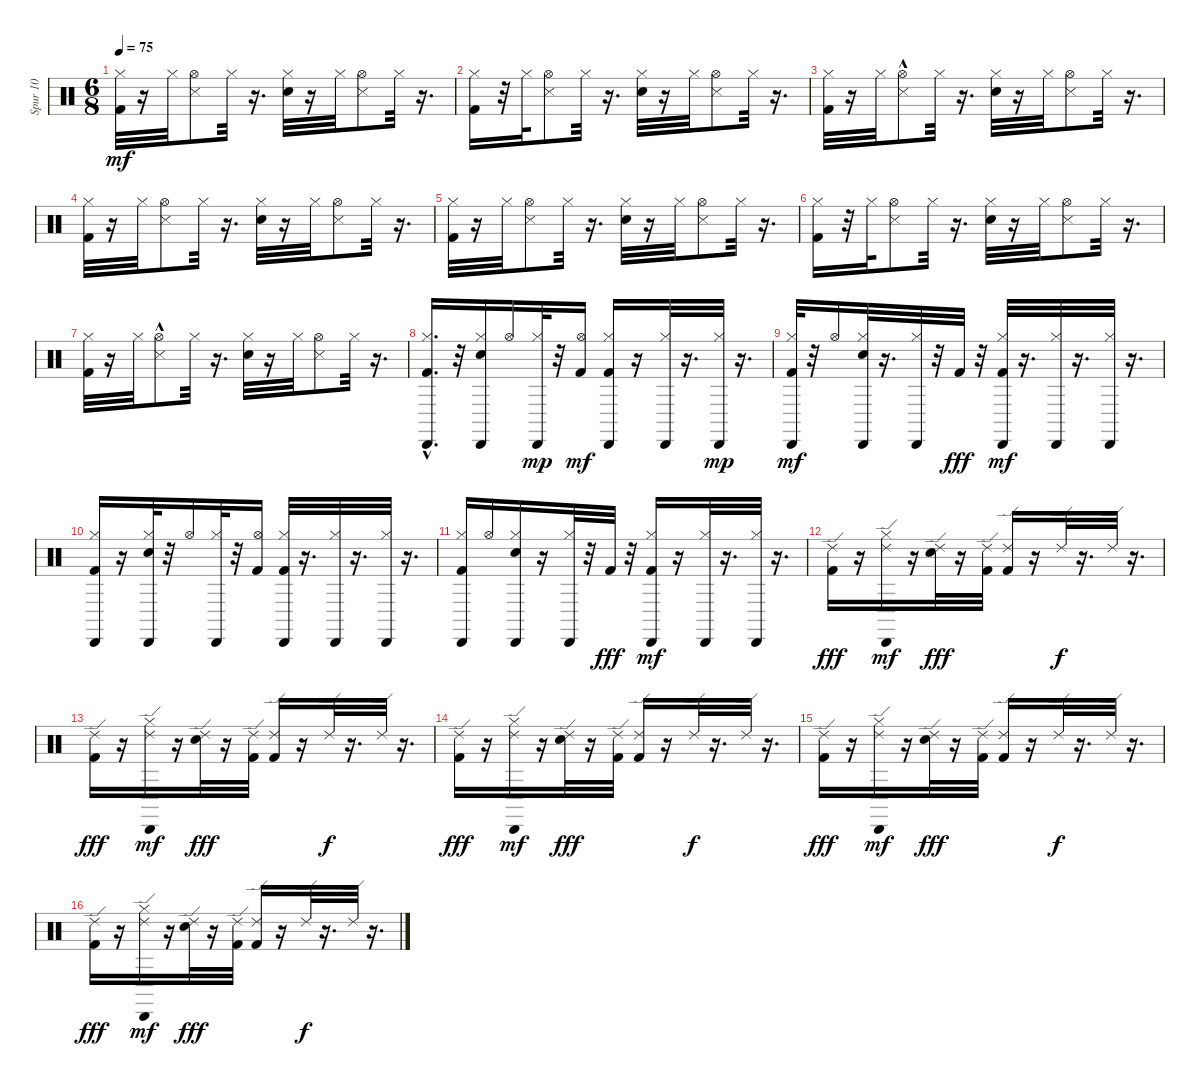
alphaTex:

\track ("Spur 10" "Spur 10") {instrument percussion}
\staff {score}
\articulation defaults
\ts (6 8)
\tempo 75
\clef neutral
\ks c
("Kick (hit) 2" "Hi-Hat (closed)").32{dy mf} r.16 "Hi-Hat (closed)".32 ("Snare (side stick) 3" "Hi-Hat (open)").8 "Hi-Hat (closed)".32 r.16{d} ("Snare (hit) 2" "Hi-Hat (closed)").32 r.16 "Hi-Hat (closed)".32 ("Snare (side stick) 3" "Hi-Hat (open)").8 "Hi-Hat (closed)".32 r.16{d} |
("Kick (hit) 2" "Hi-Hat (closed)").16 r.32 "Hi-Hat (closed)".32 ("Snare (side stick) 3" "Hi-Hat (open)").8 "Hi-Hat (closed)".32 r.16{d} ("Snare (hit) 2" "Hi-Hat (closed)").32 r.16 "Hi-Hat (closed)".32 ("Snare (side stick) 3" "Hi-Hat (open)").8 "Hi-Hat (closed)".32 r.16{d} |
("Kick (hit) 2" "Hi-Hat (closed)").32 r.16 "Hi-Hat (closed)".32 ("Snare (side stick) 3"{hac} "Hi-Hat (open)").8 "Hi-Hat (closed)".32 r.16{d} ("Snare (hit) 2" "Hi-Hat (closed)").32 r.16 "Hi-Hat (closed)".32 ("Snare (side stick) 3" "Hi-Hat (open)").8 "Hi-Hat (closed)".32 r.16{d} |
("Kick (hit) 2" "Hi-Hat (closed)").32 r.16 "Hi-Hat (closed)".32 ("Snare (side stick) 3" "Hi-Hat (open)").8 "Hi-Hat (closed)".32 r.16{d} ("Snare (hit) 2" "Hi-Hat (closed)").32 r.16 "Hi-Hat (closed)".32 ("Snare (side stick) 3" "Hi-Hat (open)").8 "Hi-Hat (closed)".32 r.16{d} |
("Kick (hit) 2" "Hi-Hat (closed)").32 r.16 "Hi-Hat (closed)".32 ("Snare (side stick) 3" "Hi-Hat (open)").8 "Hi-Hat (closed)".32 r.16{d} ("Snare (hit) 2" "Hi-Hat (closed)").32 r.16 "Hi-Hat (closed)".32 ("Snare (side stick) 3" "Hi-Hat (open)").8 "Hi-Hat (closed)".32 r.16{d} |
("Kick (hit) 2" "Hi-Hat (closed)").16 r.32 "Hi-Hat (closed)".32 ("Snare (side stick) 3" "Hi-Hat (open)").8 "Hi-Hat (closed)".32 r.16{d} ("Snare (hit) 2" "Hi-Hat (closed)").32 r.16 "Hi-Hat (closed)".32 ("Snare (side stick) 3" "Hi-Hat (open)").8 "Hi-Hat (closed)".32 r.16{d} |
("Kick (hit) 2" "Hi-Hat (closed)").32 r.16 "Hi-Hat (closed)".32 ("Snare (side stick) 3"{hac} "Hi-Hat (open)").8 "Hi-Hat (closed)".32 r.16{d} ("Snare (hit) 2" "Hi-Hat (closed)").32 r.16 "Hi-Hat (closed)".32 ("Snare (side stick) 3" "Hi-Hat (open)").8 "Hi-Hat (closed)".32 r.16{d} |
("Cabasa (hit)" "Kick (hit) 2"{hac} "Hi-Hat (closed)").16{d} r.32 ("Cabasa (hit)" "Snare (hit) 2" "Hi-Hat (closed)").16 "Hi-Hat (open)".16 ("Cabasa (hit)" "Hi-Hat (closed)").32{dy mp} r.32 ("Kick (hit) 2" "Hi-Hat (open)").16{dy mf} ("Cabasa (hit)" "Kick (hit) 2" "Hi-Hat (closed)").16 r.16 ("Cabasa (hit)" "Hi-Hat (closed)").32 r.16{d} ("Cabasa (hit)" "Hi-Hat (closed)").32{dy mp} r.16{d} |
("Cabasa (hit)" "Kick (hit) 2" "Hi-Hat (closed)").32{dy mf} r.32 "Hi-Hat (open)".16 ("Cabasa (hit)" "Snare (hit) 2" "Hi-Hat (closed)").32 r.16{d} ("Cabasa (hit)" "Hi-Hat (closed)").32 r.32 "Kick (hit) 2".32{dy fff} r.32 ("Cabasa (hit)" "Kick (hit) 2" "Hi-Hat (closed)").32{dy mf} r.16{d} ("Cabasa (hit)" "Hi-Hat (closed)").32 r.16{d} ("Cabasa (hit)" "Hi-Hat (closed)").32 r.16{d} |
("Cabasa (hit)" "Kick (hit) 2" "Hi-Hat (closed)").16 r.16 ("Cabasa (hit)" "Snare (hit) 2" "Hi-Hat (closed)").32 r.32 "Hi-Hat (open)".16 ("Cabasa (hit)" "Hi-Hat (closed)").32 r.32 ("Kick (hit) 2" "Hi-Hat (open)").16 ("Cabasa (hit)" "Kick (hit) 2" "Hi-Hat (closed)").32 r.16{d} ("Cabasa (hit)" "Hi-Hat (closed)").32 r.16{d} ("Cabasa (hit)" "Hi-Hat (closed)").32 r.16{d} |
("Cabasa (hit)" "Kick (hit) 2" "Hi-Hat (closed)").16 "Hi-Hat (open)".16 ("Cabasa (hit)" "Snare (hit) 2" "Hi-Hat (closed)").16 r.16 ("Cabasa (hit)" "Hi-Hat (closed)").32 r.32 "Kick (hit) 2".32{dy fff} r.32 ("Cabasa (hit)" "Kick (hit) 2" "Hi-Hat (closed)").16{dy mf} r.16 ("Cabasa (hit)" "Hi-Hat (closed)").32 r.16{d} ("Cabasa (hit)" "Hi-Hat (closed)").32 r.16{d} |
("Kick (hit) 2" "Ride (edge) 2").16{dy fff} r.16 ("Cabasa (hit)" "Hi-Hat (closed)" "Ride (edge) 2").16{dy mf} r.16 ("Snare (hit) 2" "Ride (edge) 2").32{dy fff} r.16 ("Kick (hit) 2" "Ride (edge) 2").32 ("Kick (hit) 2" "Ride (edge) 2").16 r.16 "Ride (edge) 2".32{dy f} r.16{d} "Ride (edge) 2".32 r.16{d} |
("Kick (hit) 2" "Ride (edge) 2").16{dy fff} r.16 ("Cabasa (hit)" "Hi-Hat (closed)" "Ride (edge) 2").16{dy mf} r.16 ("Snare (hit) 2" "Ride (edge) 2").32{dy fff} r.16 ("Kick (hit) 2" "Ride (edge) 2").32 ("Kick (hit) 2" "Ride (edge) 2").16 r.16 "Ride (edge) 2".32{dy f} r.16{d} "Ride (edge) 2".32 r.16{d} |
("Kick (hit) 2" "Ride (edge) 2").16{dy fff} r.16 ("Cabasa (hit)" "Hi-Hat (closed)" "Ride (edge) 2").16{dy mf} r.16 ("Snare (hit) 2" "Ride (edge) 2").32{dy fff} r.16 ("Kick (hit) 2" "Ride (edge) 2").32 ("Kick (hit) 2" "Ride (edge) 2").16 r.16 "Ride (edge) 2".32{dy f} r.16{d} "Ride (edge) 2".32 r.16{d} |
("Kick (hit) 2" "Ride (edge) 2").16{dy fff} r.16 ("Cabasa (hit)" "Hi-Hat (closed)" "Ride (edge) 2").16{dy mf} r.16 ("Snare (hit) 2" "Ride (edge) 2").32{dy fff} r.16 ("Kick (hit) 2" "Ride (edge) 2").32 ("Kick (hit) 2" "Ride (edge) 2").16 r.16 "Ride (edge) 2".32{dy f} r.16{d} "Ride (edge) 2".32 r.16{d} |
("Kick (hit) 2" "Ride (edge) 2").16{dy fff} r.16 ("Cabasa (hit)" "Hi-Hat (closed)" "Ride (edge) 2").16{dy mf} r.16 ("Snare (hit) 2" "Ride (edge) 2").32{dy fff} r.16 ("Kick (hit) 2" "Ride (edge) 2").32 ("Kick (hit) 2" "Ride (edge) 2").16 r.16 "Ride (edge) 2".32{dy f} r.16{d} "Ride (edge) 2".32 r.16{d}
